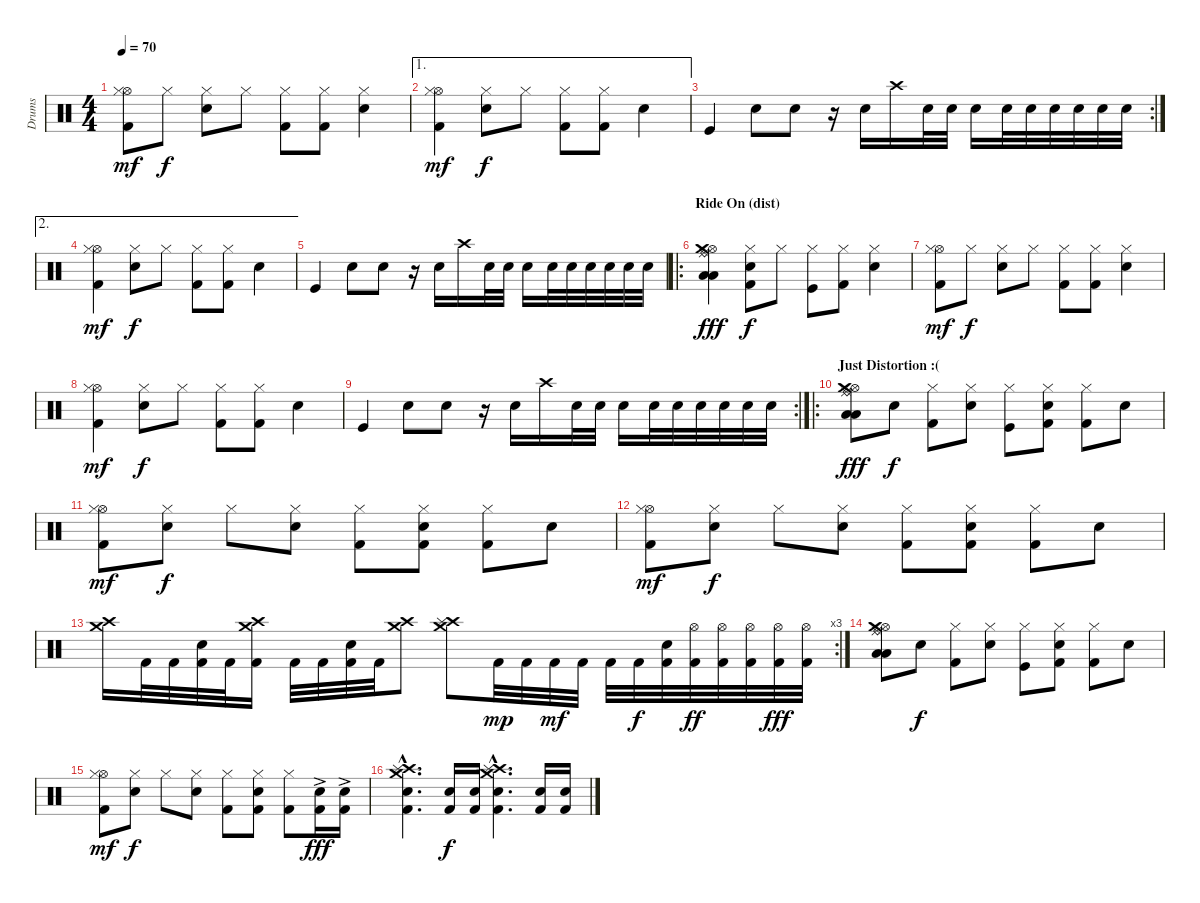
\track ("Drums" "Drums") {instrument percussion}
\staff {score}
\articulation defaults
\ts (4 4)
\tempo 70
\clef neutral
\ks c
("Kick (hit) 2" "Hi-Hat (open)" "Hi-Hat (closed)").8{dy mf} "Hi-Hat (closed)".8{dy f} ("Snare (hit) 2" "Hi-Hat (closed)").8 "Hi-Hat (closed)".8 ("Kick (hit) 2" "Hi-Hat (closed)").8 ("Kick (hit) 2" "Hi-Hat (closed)").8 ("Snare (hit) 2" "Hi-Hat (closed)").4 |
\ae 1
("Kick (hit) 2" "Hi-Hat (open)" "Hi-Hat (closed)").4{dy mf} ("Snare (hit) 2" "Hi-Hat (closed)").8{dy f} "Hi-Hat (closed)".8 ("Kick (hit) 2" "Hi-Hat (closed)").8 ("Kick (hit) 2" "Hi-Hat (closed)").8 "Snare (hit) 2".4 |
\rc 2 "Kick (hit)".4 "Snare (hit) 2".8 "Snare (hit) 2".8
r.16 "Snare (hit) 2".16 "Crash high (hit)".16 "Snare (hit) 2".32 "Snare (hit) 2".32 "Snare (hit) 2".16 "Snare (hit) 2".32 "Snare (hit) 2".32 "Snare (hit) 2".32 "Snare (hit) 2".32 "Snare (hit) 2".32 "Snare (hit) 2".32 |
\ae 2
("Kick (hit) 2" "Hi-Hat (open)" "Hi-Hat (closed)").4{dy mf} ("Snare (hit) 2" "Hi-Hat (closed)").8{dy f} "Hi-Hat (closed)".8 ("Kick (hit) 2" "Hi-Hat (closed)").8 ("Kick (hit) 2" "Hi-Hat (closed)").8 "Snare (hit) 2".4 |
"Kick (hit)".4 "Snare (hit) 2".8 "Snare (hit) 2".8 r.16 "Snare (hit) 2".16 "Crash high (hit)".16 "Snare (hit) 2".32 "Snare (hit) 2".32 "Snare (hit) 2".16 "Snare (hit) 2".32 "Snare (hit) 2".32 "Snare (hit) 2".32 "Snare (hit) 2".32 "Snare (hit) 2".32 "Snare (hit) 2".32 |
\ro
\section ("" "Ride On (dist)")
("Hi-Hat (open)" "Ride (middle)" "Ride (bell)" "Low Tom (hit)" "Crash medium (hit)" "Low Tom (hit)").4{dy fff} ("Kick (hit) 2" "Snare (hit) 2" "Hi-Hat (closed)").8{dy f} "Hi-Hat (closed)".8 ("Kick (hit)" "Hi-Hat (closed)").8 ("Kick (hit) 2" "Hi-Hat (closed)").8 ("Snare (hit) 2" "Hi-Hat (closed)").4 |
("Kick (hit) 2" "Hi-Hat (open)" "Hi-Hat (closed)").8{dy mf} "Hi-Hat (closed)".8{dy f} ("Snare (hit) 2" "Hi-Hat (closed)").8 "Hi-Hat (closed)".8 ("Kick (hit) 2" "Hi-Hat (closed)").8 ("Kick (hit) 2" "Hi-Hat (closed)").8 ("Snare (hit) 2" "Hi-Hat (closed)").4 |
("Kick (hit) 2" "Hi-Hat (open)" "Hi-Hat (closed)").4{dy mf} ("Snare (hit) 2" "Hi-Hat (closed)").8{dy f} "Hi-Hat (closed)".8 ("Kick (hit) 2" "Hi-Hat (closed)").8 ("Kick (hit) 2" "Hi-Hat (closed)").8 "Snare (hit) 2".4 |
\rc 2 "Kick (hit)".4 "Snare (hit) 2".8 "Snare (hit) 2".8
r.16 "Snare (hit) 2".16 "Crash high (hit)".16 "Snare (hit) 2".32 "Snare (hit) 2".32 "Snare (hit) 2".16 "Snare (hit) 2".32 "Snare (hit) 2".32 "Snare (hit) 2".32 "Snare (hit) 2".32 "Snare (hit) 2".32 "Snare (hit) 2".32 |
\ro
\section ("" "Just Distortion :(")
("Hi-Hat (open)" "Ride (middle)" "Ride (bell)" "Low Tom (hit)" "Crash medium (hit)" "Low Tom (hit)").8{dy fff} "Snare (hit) 2".8{dy f} ("Kick (hit) 2" "Hi-Hat (closed)").8 ("Snare (hit) 2" "Hi-Hat (closed)").8 ("Kick (hit)" "Hi-Hat (closed)").8 ("Kick (hit) 2" "Snare (hit) 2" "Hi-Hat (closed)").8 ("Kick (hit) 2" "Hi-Hat (closed)").8 "Snare (hit) 2".8 |
("Kick (hit) 2" "Hi-Hat (open)" "Hi-Hat (closed)").8{dy mf} ("Snare (hit) 2" "Hi-Hat (closed)").8{dy f} "Hi-Hat (closed)".8 ("Snare (hit) 2" "Hi-Hat (closed)").8 ("Kick (hit) 2" "Hi-Hat (closed)").8 ("Kick (hit) 2" "Snare (hit) 2" "Hi-Hat (closed)").8 ("Kick (hit) 2" "Hi-Hat (closed)").8 "Snare (hit) 2".8 |
("Kick (hit) 2" "Hi-Hat (open)" "Hi-Hat (closed)").8{dy mf} ("Snare (hit) 2" "Hi-Hat (closed)").8{dy f} "Hi-Hat (closed)".8 ("Snare (hit) 2" "Hi-Hat (closed)").8 ("Kick (hit) 2" "Hi-Hat (closed)").8 ("Kick (hit) 2" "Snare (hit) 2" "Hi-Hat (closed)").8 ("Kick (hit) 2" "Hi-Hat (closed)").8 "Snare (hit) 2".8 |
\rc 3
("Crash high (hit)" "Crash medium (hit)").16 "Kick (hit) 2".32 "Kick (hit) 2".32 ("Kick (hit) 2" "Snare (hit) 2").32 "Kick (hit) 2".32 ("Crash high (hit)" "Crash medium (hit)" "Kick (hit) 2").16 "Kick (hit) 2".32 "Kick (hit) 2".32 ("Kick (hit) 2" "Snare (hit) 2").32 "Kick (hit) 2".32 ("Crash high (hit)" "Crash medium (hit)").8 ("Crash high (hit)" "Crash medium (hit)" "Splash (hit)").8 "Kick (hit) 2".32{dy mp} "Kick (hit) 2".32 "Kick (hit) 2".32{dy mf} "Kick (hit) 2".32 "Kick (hit) 2".32 "Kick (hit) 2".32{dy f} ("Kick (hit) 2" "Snare (hit) 2").32 ("Hi-Hat (open)" "Kick (hit) 2").32{dy ff} ("Hi-Hat (open)" "Kick (hit) 2").32 ("Hi-Hat (open)" "Kick (hit) 2").32 ("Hi-Hat (open)" "Kick (hit) 2").32{dy fff} ("Hi-Hat (open)" "Kick (hit) 2").32 |
("Hi-Hat (open)" "Ride (middle)" "Ride (bell)" "Low Tom (hit)" "Crash medium (hit)" "Low Tom (hit)").8 "Snare (hit) 2".8{dy f} ("Kick (hit) 2" "Hi-Hat (closed)").8 ("Snare (hit) 2" "Hi-Hat (closed)").8 ("Kick (hit)" "Hi-Hat (closed)").8 ("Kick (hit) 2" "Snare (hit) 2" "Hi-Hat (closed)").8 ("Kick (hit) 2" "Hi-Hat (closed)").8 "Snare (hit) 2".8 |
("Kick (hit) 2" "Hi-Hat (open)" "Hi-Hat (closed)").8{dy mf} ("Snare (hit) 2" "Hi-Hat (closed)").8{dy f} "Hi-Hat (closed)".8 ("Snare (hit) 2" "Hi-Hat (closed)").8 ("Kick (hit) 2" "Hi-Hat (closed)").8 ("Kick (hit) 2" "Snare (hit) 2" "Hi-Hat (closed)").8 ("Kick (hit) 2" "Hi-Hat (closed)").8 ("Kick (hit) 2"{ac} "Snare (hit) 2").16{dy fff} ("Kick (hit) 2"{ac} "Snare (hit) 2").16 |
("Crash high (hit)"{hac} "Splash (hit)"{hac} "Crash medium (hit)"{hac} "Kick (hit) 2"{hac} "Snare (hit) 2"{hac}).4{d} ("Kick (hit) 2" "Snare (hit) 2").16{dy f} ("Kick (hit) 2" "Snare (hit) 2").16 ("Crash high (hit)"{hac} "Splash (hit)"{hac} "Crash medium (hit)"{hac} "Kick (hit) 2"{hac} "Snare (hit) 2"{hac}).4{d} ("Kick (hit) 2" "Snare (hit) 2").16 ("Kick (hit) 2" "Snare (hit) 2").16
